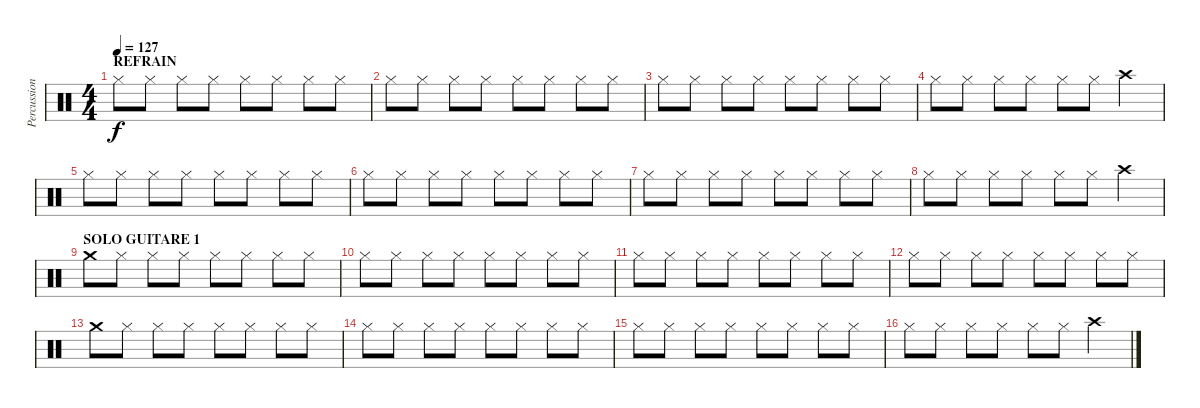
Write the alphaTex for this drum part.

\track ("Percussions" "Percussion") {instrument percussion}
\staff {score}
\articulation defaults
\ts (4 4)
\section ("" "REFRAIN")
\tempo 127
\clef neutral
\ks c "Hi-Hat (closed)".8{dy f} "Hi-Hat (closed)".8 "Hi-Hat (closed)".8 "Hi-Hat (closed)".8 "Hi-Hat (closed)".8 "Hi-Hat (closed)".8 "Hi-Hat (closed)".8 "Hi-Hat (closed)".8
|
"Hi-Hat (closed)".8 "Hi-Hat (closed)".8 "Hi-Hat (closed)".8 "Hi-Hat (closed)".8 "Hi-Hat (closed)".8 "Hi-Hat (closed)".8 "Hi-Hat (closed)".8 "Hi-Hat (closed)".8 |
"Hi-Hat (closed)".8 "Hi-Hat (closed)".8 "Hi-Hat (closed)".8 "Hi-Hat (closed)".8 "Hi-Hat (closed)".8 "Hi-Hat (closed)".8 "Hi-Hat (closed)".8 "Hi-Hat (closed)".8 |
"Hi-Hat (closed)".8 "Hi-Hat (closed)".8 "Hi-Hat (closed)".8 "Hi-Hat (closed)".8 "Hi-Hat (closed)".8 "Hi-Hat (closed)".8 "Crash high (hit)".4 |
"Hi-Hat (closed)".8 "Hi-Hat (closed)".8 "Hi-Hat (closed)".8 "Hi-Hat (closed)".8 "Hi-Hat (closed)".8 "Hi-Hat (closed)".8 "Hi-Hat (closed)".8 "Hi-Hat (closed)".8 |
"Hi-Hat (closed)".8 "Hi-Hat (closed)".8 "Hi-Hat (closed)".8 "Hi-Hat (closed)".8 "Hi-Hat (closed)".8 "Hi-Hat (closed)".8 "Hi-Hat (closed)".8 "Hi-Hat (closed)".8 |
"Hi-Hat (closed)".8 "Hi-Hat (closed)".8 "Hi-Hat (closed)".8 "Hi-Hat (closed)".8 "Hi-Hat (closed)".8 "Hi-Hat (closed)".8 "Hi-Hat (closed)".8 "Hi-Hat (closed)".8 |
"Hi-Hat (closed)".8 "Hi-Hat (closed)".8 "Hi-Hat (closed)".8 "Hi-Hat (closed)".8 "Hi-Hat (closed)".8 "Hi-Hat (closed)".8 "Crash high (hit)".4 |
\section ("" "SOLO GUITARE 1")
"Crash medium (hit)".8 "Hi-Hat (closed)".8 "Hi-Hat (closed)".8 "Hi-Hat (closed)".8 "Hi-Hat (closed)".8 "Hi-Hat (closed)".8 "Hi-Hat (closed)".8 "Hi-Hat (closed)".8 |
"Hi-Hat (closed)".8 "Hi-Hat (closed)".8 "Hi-Hat (closed)".8 "Hi-Hat (closed)".8 "Hi-Hat (closed)".8 "Hi-Hat (closed)".8 "Hi-Hat (closed)".8 "Hi-Hat (closed)".8 |
"Hi-Hat (closed)".8 "Hi-Hat (closed)".8 "Hi-Hat (closed)".8 "Hi-Hat (closed)".8 "Hi-Hat (closed)".8 "Hi-Hat (closed)".8 "Hi-Hat (closed)".8 "Hi-Hat (closed)".8 |
"Hi-Hat (closed)".8 "Hi-Hat (closed)".8 "Hi-Hat (closed)".8 "Hi-Hat (closed)".8 "Hi-Hat (closed)".8 "Hi-Hat (closed)".8 "Hi-Hat (closed)".8 "Hi-Hat (closed)".8 |
"Crash medium (hit)".8 "Hi-Hat (closed)".8 "Hi-Hat (closed)".8 "Hi-Hat (closed)".8 "Hi-Hat (closed)".8 "Hi-Hat (closed)".8 "Hi-Hat (closed)".8 "Hi-Hat (closed)".8 |
"Hi-Hat (closed)".8 "Hi-Hat (closed)".8 "Hi-Hat (closed)".8 "Hi-Hat (closed)".8 "Hi-Hat (closed)".8 "Hi-Hat (closed)".8 "Hi-Hat (closed)".8 "Hi-Hat (closed)".8 |
"Hi-Hat (closed)".8 "Hi-Hat (closed)".8 "Hi-Hat (closed)".8 "Hi-Hat (closed)".8 "Hi-Hat (closed)".8 "Hi-Hat (closed)".8 "Hi-Hat (closed)".8 "Hi-Hat (closed)".8 |
"Hi-Hat (closed)".8 "Hi-Hat (closed)".8 "Hi-Hat (closed)".8 "Hi-Hat (closed)".8 "Hi-Hat (closed)".8 "Hi-Hat (closed)".8 "Crash high (hit)".4
